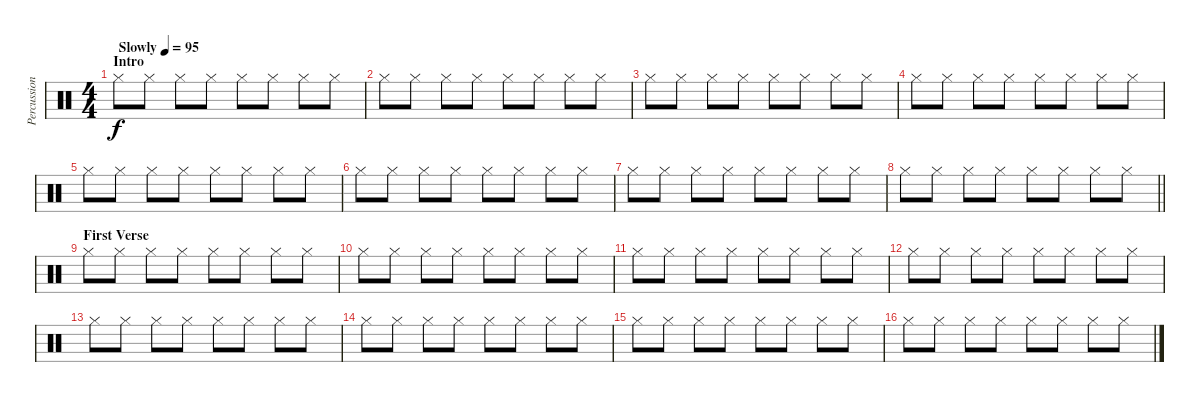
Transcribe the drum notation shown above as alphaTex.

\track ("Percussioni" "Percussion") {instrument percussion}
\staff {score}
\articulation defaults
\ts (4 4)
\section ("" "Intro")
\tempo (95 "Slowly")
\clef neutral
\ks c "Hi-Hat (closed)".8{dy f} "Hi-Hat (closed)".8 "Hi-Hat (closed)".8 "Hi-Hat (closed)".8 "Hi-Hat (closed)".8 "Hi-Hat (closed)".8 "Hi-Hat (closed)".8 "Hi-Hat (closed)".8
|
"Hi-Hat (closed)".8 "Hi-Hat (closed)".8 "Hi-Hat (closed)".8 "Hi-Hat (closed)".8 "Hi-Hat (closed)".8 "Hi-Hat (closed)".8 "Hi-Hat (closed)".8 "Hi-Hat (closed)".8 |
"Hi-Hat (closed)".8 "Hi-Hat (closed)".8 "Hi-Hat (closed)".8 "Hi-Hat (closed)".8 "Hi-Hat (closed)".8 "Hi-Hat (closed)".8 "Hi-Hat (closed)".8 "Hi-Hat (closed)".8 |
"Hi-Hat (closed)".8 "Hi-Hat (closed)".8 "Hi-Hat (closed)".8 "Hi-Hat (closed)".8 "Hi-Hat (closed)".8 "Hi-Hat (closed)".8 "Hi-Hat (closed)".8 "Hi-Hat (closed)".8 |
"Hi-Hat (closed)".8 "Hi-Hat (closed)".8 "Hi-Hat (closed)".8 "Hi-Hat (closed)".8 "Hi-Hat (closed)".8 "Hi-Hat (closed)".8 "Hi-Hat (closed)".8 "Hi-Hat (closed)".8 |
"Hi-Hat (closed)".8 "Hi-Hat (closed)".8 "Hi-Hat (closed)".8 "Hi-Hat (closed)".8 "Hi-Hat (closed)".8 "Hi-Hat (closed)".8 "Hi-Hat (closed)".8 "Hi-Hat (closed)".8 |
"Hi-Hat (closed)".8 "Hi-Hat (closed)".8 "Hi-Hat (closed)".8 "Hi-Hat (closed)".8 "Hi-Hat (closed)".8 "Hi-Hat (closed)".8 "Hi-Hat (closed)".8 "Hi-Hat (closed)".8 |
\barLineRight lightlight "Hi-Hat (closed)".8 "Hi-Hat (closed)".8 "Hi-Hat (closed)".8 "Hi-Hat (closed)".8 "Hi-Hat (closed)".8 "Hi-Hat (closed)".8 "Hi-Hat (closed)".8 "Hi-Hat (closed)".8
|
\section ("" "First Verse")
"Hi-Hat (closed)".8 "Hi-Hat (closed)".8 "Hi-Hat (closed)".8 "Hi-Hat (closed)".8 "Hi-Hat (closed)".8 "Hi-Hat (closed)".8 "Hi-Hat (closed)".8 "Hi-Hat (closed)".8 |
"Hi-Hat (closed)".8 "Hi-Hat (closed)".8 "Hi-Hat (closed)".8 "Hi-Hat (closed)".8 "Hi-Hat (closed)".8 "Hi-Hat (closed)".8 "Hi-Hat (closed)".8 "Hi-Hat (closed)".8 |
"Hi-Hat (closed)".8 "Hi-Hat (closed)".8 "Hi-Hat (closed)".8 "Hi-Hat (closed)".8 "Hi-Hat (closed)".8 "Hi-Hat (closed)".8 "Hi-Hat (closed)".8 "Hi-Hat (closed)".8 |
"Hi-Hat (closed)".8 "Hi-Hat (closed)".8 "Hi-Hat (closed)".8 "Hi-Hat (closed)".8 "Hi-Hat (closed)".8 "Hi-Hat (closed)".8 "Hi-Hat (closed)".8 "Hi-Hat (closed)".8 |
"Hi-Hat (closed)".8 "Hi-Hat (closed)".8 "Hi-Hat (closed)".8 "Hi-Hat (closed)".8 "Hi-Hat (closed)".8 "Hi-Hat (closed)".8 "Hi-Hat (closed)".8 "Hi-Hat (closed)".8 |
"Hi-Hat (closed)".8 "Hi-Hat (closed)".8 "Hi-Hat (closed)".8 "Hi-Hat (closed)".8 "Hi-Hat (closed)".8 "Hi-Hat (closed)".8 "Hi-Hat (closed)".8 "Hi-Hat (closed)".8 |
"Hi-Hat (closed)".8 "Hi-Hat (closed)".8 "Hi-Hat (closed)".8 "Hi-Hat (closed)".8 "Hi-Hat (closed)".8 "Hi-Hat (closed)".8 "Hi-Hat (closed)".8 "Hi-Hat (closed)".8 |
"Hi-Hat (closed)".8 "Hi-Hat (closed)".8 "Hi-Hat (closed)".8 "Hi-Hat (closed)".8 "Hi-Hat (closed)".8 "Hi-Hat (closed)".8 "Hi-Hat (closed)".8 "Hi-Hat (closed)".8
